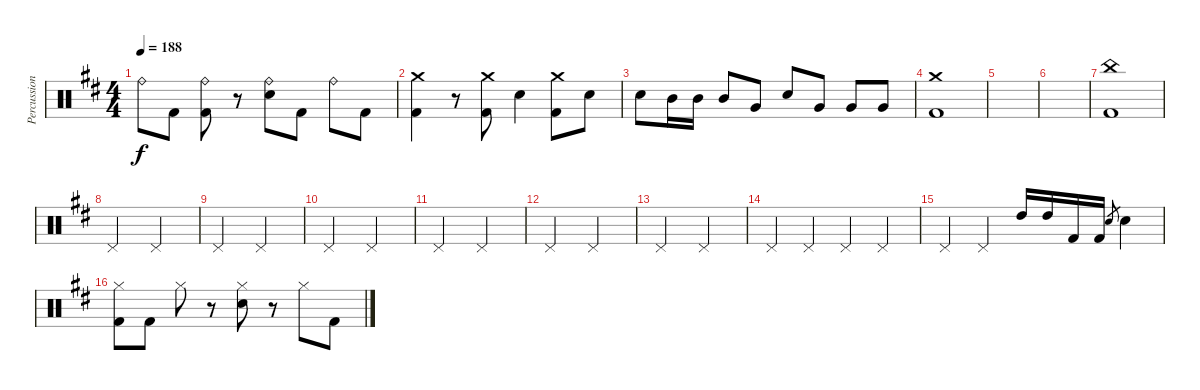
\track ("Percussion" "Percussion") {instrument percussion}
\staff {score}
\articulation defaults
\ts (4 4)
\tempo 188
\clef neutral
\ks bminor "Ride (bell)".8{dy f} "Kick (hit) 2".8
("Kick (hit) 2" "Ride (bell)").8 r.8 ("Electric Snare (hit)" "Ride (bell)").8 "Kick (hit) 2".8 "Ride (bell)".8 "Kick (hit) 2".8 |
("Kick (hit) 2" "Crash medium (hit)").4{volume 16} r.8 ("Crash medium (hit)" "Kick (hit) 2").8 "Electric Snare (hit)".4 ("Crash medium (hit)" "Kick (hit) 2").8 "Electric Snare (hit)".8 |
"Electric Snare (hit)".8 "Mid Tom (hit)".16 "Mid Tom (hit)".16 "Mid Tom (hit)".8 "Very Low Tom (hit)".8 "Electric Snare (hit)".8 "Very Low Tom (hit)".8 "Very Low Tom (hit)".8 "Very Low Tom (hit)".8 |
("Kick (hit) 2" "Crash medium (hit)").1 |
|
|
("Kick (hit) 2" "China (hit)").1 |
"Pedal Hi-Hat (hit)".2 "Pedal Hi-Hat (hit)".2 |
"Pedal Hi-Hat (hit)".2 "Pedal Hi-Hat (hit)".2 |
"Pedal Hi-Hat (hit)".2 "Pedal Hi-Hat (hit)".2 |
"Pedal Hi-Hat (hit)".2 "Pedal Hi-Hat (hit)".2 |
"Pedal Hi-Hat (hit)".2 "Pedal Hi-Hat (hit)".2 |
"Pedal Hi-Hat (hit)".2 "Pedal Hi-Hat (hit)".2 |
"Pedal Hi-Hat (hit)".4 "Pedal Hi-Hat (hit)".4 "Pedal Hi-Hat (hit)".4 "Pedal Hi-Hat (hit)".4 |
"Pedal Hi-Hat (hit)".4 "Pedal Hi-Hat (hit)".4 "High Tom (hit)".16 "High Tom (hit)".16 "Kick (hit) 2".16 "Kick (hit) 2".16 "Electric Snare (hit)".8{gr} "Electric Snare (hit)".4 |
("Hi-Hat (closed)" "Kick (hit) 2").8{volume 16} "Kick (hit) 2".8 "Hi-Hat (closed)".8 r.8 ("Electric Snare (hit)" "Hi-Hat (closed)").8 r.8 "Hi-Hat (closed)".8 "Kick (hit) 2".8
